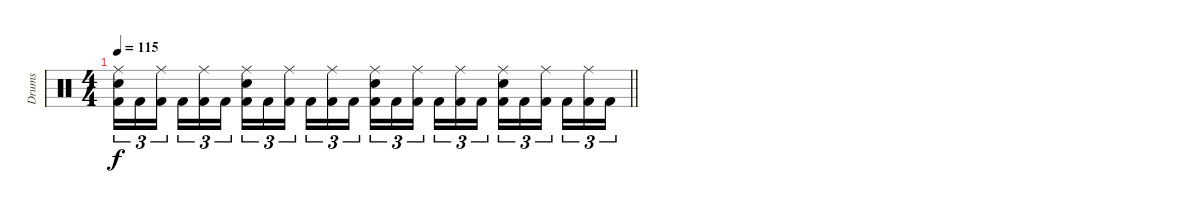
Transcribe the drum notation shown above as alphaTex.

\track ("Drums" "Drums") {instrument percussion}
\staff {score}
\articulation defaults
\ts (4 4)
\tempo 115
\clef neutral
\barLineRight lightlight
\ks c
("Kick (hit) 2" "Electric Snare (hit)" "Ride (middle)").16{tu (3 2) dy f} "Kick (hit) 2".16{tu (3 2)} ("Kick (hit) 2" "Ride (middle)").16{tu (3 2)} "Kick (hit) 2".16{tu (3 2)} ("Kick (hit) 2" "Ride (middle)").16{tu (3 2)} "Kick (hit) 2".16{tu (3 2)} ("Kick (hit) 2" "Electric Snare (hit)" "Ride (middle)").16{tu (3 2)} "Kick (hit) 2".16{tu (3 2)} ("Kick (hit) 2" "Ride (middle)").16{tu (3 2)} "Kick (hit) 2".16{tu (3 2)} ("Kick (hit) 2" "Ride (middle)").16{tu (3 2)} "Kick (hit) 2".16{tu (3 2)} ("Kick (hit) 2" "Electric Snare (hit)" "Ride (middle)").16{tu (3 2)} "Kick (hit) 2".16{tu (3 2)} ("Kick (hit) 2" "Ride (middle)").16{tu (3 2)} "Kick (hit) 2".16{tu (3 2)} ("Kick (hit) 2" "Ride (middle)").16{tu (3 2)} "Kick (hit) 2".16{tu (3 2)} ("Kick (hit) 2" "Electric Snare (hit)" "Ride (middle)").16{tu (3 2)} "Kick (hit) 2".16{tu (3 2)} ("Kick (hit) 2" "Ride (middle)").16{tu (3 2)} "Kick (hit) 2".16{tu (3 2)} ("Kick (hit) 2" "Ride (middle)").16{tu (3 2)} "Kick (hit) 2".16{tu (3 2)}
